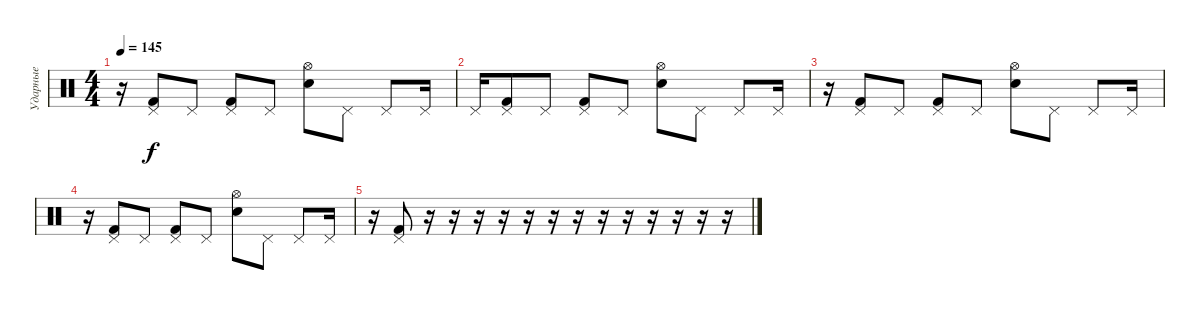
\track ("Ударные" "Ударные") {instrument percussion}
\staff {score}
\articulation defaults
\ts (4 4)
\tempo 145
\clef neutral
\ks c
r.16{dy f} ("Pedal Hi-Hat (hit)" "Kick (hit) 2").8 "Pedal Hi-Hat (hit)".8 ("Pedal Hi-Hat (hit)" "Kick (hit) 2").8 "Pedal Hi-Hat (hit)".8 ("Hi-Hat (open)" "Electric Snare (hit)").8 "Pedal Hi-Hat (hit)".8 "Pedal Hi-Hat (hit)".8 "Pedal Hi-Hat (hit)".16 |
"Pedal Hi-Hat (hit)".16 ("Pedal Hi-Hat (hit)" "Kick (hit) 2").8 "Pedal Hi-Hat (hit)".8 ("Pedal Hi-Hat (hit)" "Kick (hit) 2").8 "Pedal Hi-Hat (hit)".8 ("Hi-Hat (open)" "Electric Snare (hit)").8 "Pedal Hi-Hat (hit)".8 "Pedal Hi-Hat (hit)".8 "Pedal Hi-Hat (hit)".16 |
r.16 ("Pedal Hi-Hat (hit)" "Kick (hit) 2").8 "Pedal Hi-Hat (hit)".8 ("Pedal Hi-Hat (hit)" "Kick (hit) 2").8 "Pedal Hi-Hat (hit)".8 ("Hi-Hat (open)" "Electric Snare (hit)").8 "Pedal Hi-Hat (hit)".8 "Pedal Hi-Hat (hit)".8 "Pedal Hi-Hat (hit)".16 |
r.16 ("Pedal Hi-Hat (hit)" "Kick (hit) 2").8 "Pedal Hi-Hat (hit)".8 ("Pedal Hi-Hat (hit)" "Kick (hit) 2").8 "Pedal Hi-Hat (hit)".8 ("Hi-Hat (open)" "Electric Snare (hit)").8 "Pedal Hi-Hat (hit)".8 "Pedal Hi-Hat (hit)".8 "Pedal Hi-Hat (hit)".16 |
r.16 ("Pedal Hi-Hat (hit)" "Kick (hit) 2").8 r.16 r.16 r.16 r.16 r.16 r.16 r.16 r.16 r.16 r.16 r.16 r.16 r.16
